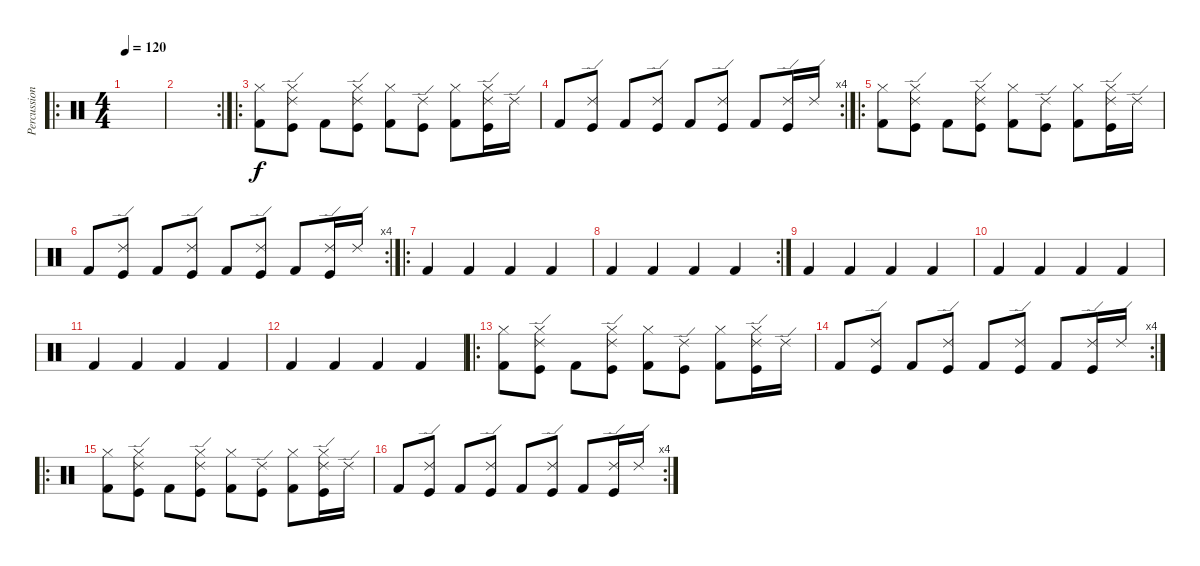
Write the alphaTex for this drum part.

\track ("Percussions" "Percussion") {instrument percussion}
\staff {score}
\articulation defaults
\ro
\ts (4 4)
\tempo 120
\clef neutral
\ks c
|
\rc 2
|
\ro
("Kick (hit) 2" "Hi-Hat (closed)").8 ("Ride (edge) 2" "Kick (hit)" "Hi-Hat (closed)").8 "Kick (hit) 2".8 ("Ride (edge) 2" "Kick (hit)" "Hi-Hat (closed)").8 ("Kick (hit) 2" "Hi-Hat (closed)").8 ("Ride (edge) 2" "Kick (hit)").8 ("Kick (hit) 2" "Hi-Hat (closed)").8 ("Ride (edge) 2" "Kick (hit)" "Hi-Hat (closed)").16 "Ride (edge) 2".16 |
\rc 4 "Kick (hit) 2".8
("Ride (edge) 2" "Kick (hit)").8 "Kick (hit) 2".8 ("Ride (edge) 2" "Kick (hit)").8 "Kick (hit) 2".8 ("Ride (edge) 2" "Kick (hit)").8 "Kick (hit) 2".8 ("Ride (edge) 2" "Kick (hit)").16 "Ride (edge) 2".16 |
\ro
("Kick (hit) 2" "Hi-Hat (closed)").8 ("Ride (edge) 2" "Kick (hit)" "Hi-Hat (closed)").8 "Kick (hit) 2".8 ("Ride (edge) 2" "Kick (hit)" "Hi-Hat (closed)").8 ("Kick (hit) 2" "Hi-Hat (closed)").8 ("Ride (edge) 2" "Kick (hit)").8 ("Kick (hit) 2" "Hi-Hat (closed)").8 ("Ride (edge) 2" "Kick (hit)" "Hi-Hat (closed)").16 "Ride (edge) 2".16 |
\rc 4 "Kick (hit) 2".8
("Ride (edge) 2" "Kick (hit)").8 "Kick (hit) 2".8 ("Ride (edge) 2" "Kick (hit)").8 "Kick (hit) 2".8 ("Ride (edge) 2" "Kick (hit)").8 "Kick (hit) 2".8 ("Ride (edge) 2" "Kick (hit)").16 "Ride (edge) 2".16 |
\ro "Kick (hit) 2".4 "Kick (hit) 2".4 "Kick (hit) 2".4 "Kick (hit) 2".4
|
\rc 2 "Kick (hit) 2".4 "Kick (hit) 2".4 "Kick (hit) 2".4 "Kick (hit) 2".4
|
"Kick (hit) 2".4 "Kick (hit) 2".4 "Kick (hit) 2".4 "Kick (hit) 2".4 |
"Kick (hit) 2".4 "Kick (hit) 2".4 "Kick (hit) 2".4 "Kick (hit) 2".4 |
"Kick (hit) 2".4 "Kick (hit) 2".4 "Kick (hit) 2".4 "Kick (hit) 2".4 |
"Kick (hit) 2".4 "Kick (hit) 2".4 "Kick (hit) 2".4 "Kick (hit) 2".4 |
\ro
("Kick (hit) 2" "Hi-Hat (closed)").8 ("Ride (edge) 2" "Kick (hit)" "Hi-Hat (closed)").8 "Kick (hit) 2".8 ("Ride (edge) 2" "Kick (hit)" "Hi-Hat (closed)").8 ("Kick (hit) 2" "Hi-Hat (closed)").8 ("Ride (edge) 2" "Kick (hit)").8 ("Kick (hit) 2" "Hi-Hat (closed)").8 ("Ride (edge) 2" "Kick (hit)" "Hi-Hat (closed)").16 "Ride (edge) 2".16 |
\rc 4 "Kick (hit) 2".8
("Ride (edge) 2" "Kick (hit)").8 "Kick (hit) 2".8 ("Ride (edge) 2" "Kick (hit)").8 "Kick (hit) 2".8 ("Ride (edge) 2" "Kick (hit)").8 "Kick (hit) 2".8 ("Ride (edge) 2" "Kick (hit)").16 "Ride (edge) 2".16 |
\ro
("Kick (hit) 2" "Hi-Hat (closed)").8 ("Ride (edge) 2" "Kick (hit)" "Hi-Hat (closed)").8 "Kick (hit) 2".8 ("Ride (edge) 2" "Kick (hit)" "Hi-Hat (closed)").8 ("Kick (hit) 2" "Hi-Hat (closed)").8 ("Ride (edge) 2" "Kick (hit)").8 ("Kick (hit) 2" "Hi-Hat (closed)").8 ("Ride (edge) 2" "Kick (hit)" "Hi-Hat (closed)").16 "Ride (edge) 2".16 |
\rc 4 "Kick (hit) 2".8
("Ride (edge) 2" "Kick (hit)").8 "Kick (hit) 2".8 ("Ride (edge) 2" "Kick (hit)").8 "Kick (hit) 2".8 ("Ride (edge) 2" "Kick (hit)").8 "Kick (hit) 2".8 ("Ride (edge) 2" "Kick (hit)").16 "Ride (edge) 2".16
